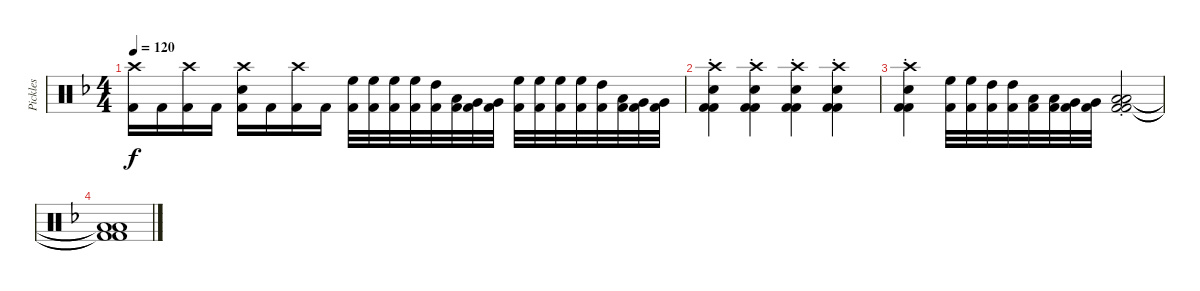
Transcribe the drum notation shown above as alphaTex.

\track ("Pickles" "Pickles") {instrument percussion}
\staff {score}
\articulation defaults
\ts (4 4)
\tempo 120
\clef neutral
\ks dminor
("Crash high (hit)" "Kick (hit) 2").16{dy f} "Kick (hit) 2".16 ("Crash high (hit)" "Kick (hit) 2").16 "Kick (hit) 2".16 ("Crash high (hit)" "Snare (hit) 2" "Kick (hit) 2").16 "Kick (hit) 2".16 ("Crash high (hit)" "Kick (hit) 2").16 "Kick (hit) 2".16 ("High Floor Tom (hit)" "Kick (hit) 2").32 ("High Floor Tom (hit)" "Kick (hit) 2").32 ("High Floor Tom (hit)" "Kick (hit) 2").32 ("High Floor Tom (hit)" "Kick (hit) 2").32 ("High Tom (hit)" "Kick (hit) 2").32 ("Low Tom (hit)" "Kick (hit) 2").32 ("Very Low Tom (hit)" "Kick (hit) 2").32 ("Very Low Tom (hit)" "Kick (hit) 2").32 ("High Floor Tom (hit)" "Kick (hit) 2").32 ("High Floor Tom (hit)" "Kick (hit) 2").32 ("High Floor Tom (hit)" "Kick (hit) 2").32 ("High Floor Tom (hit)" "Kick (hit) 2").32 ("High Tom (hit)" "Kick (hit) 2").32 ("Low Tom (hit)" "Kick (hit) 2").32 ("Very Low Tom (hit)" "Kick (hit) 2").32 ("Very Low Tom (hit)" "Kick (hit) 2").32 |
("Crash high (hit)"{st} "Snare (hit) 2" "Kick (hit) 2" "Kick (hit) 2").4 ("Crash high (hit)"{st} "Snare (hit) 2" "Kick (hit) 2" "Kick (hit) 2").4 ("Crash high (hit)"{st} "Snare (hit) 2" "Kick (hit) 2" "Kick (hit) 2").4 ("Crash high (hit)"{st} "Snare (hit) 2" "Kick (hit) 2" "Kick (hit) 2").4 |
("Crash high (hit)" "Snare (hit) 2" "Kick (hit) 2" "Kick (hit) 2"{st}).4 ("High Floor Tom (hit)" "Kick (hit) 2").32 ("High Floor Tom (hit)" "Kick (hit) 2").32 ("High Tom (hit)" "Kick (hit) 2").32 ("High Tom (hit)" "Kick (hit) 2").32 ("Low Tom (hit)" "Kick (hit) 2").32 ("Low Tom (hit)" "Kick (hit) 2").32 ("Very Low Tom (hit)" "Kick (hit) 2").32 ("Very Low Tom (hit)" "Kick (hit) 2").32 ("Low Floor Tom (hit)" "Low Floor Tom (hit)" "Kick (hit) 2"{st} "Kick (hit) 2"{st}).2 |
("Low Floor Tom (hit)"{t} "Low Floor Tom (hit)"{t} "Kick (hit) 2"{t} "Kick (hit) 2"{t}).1
